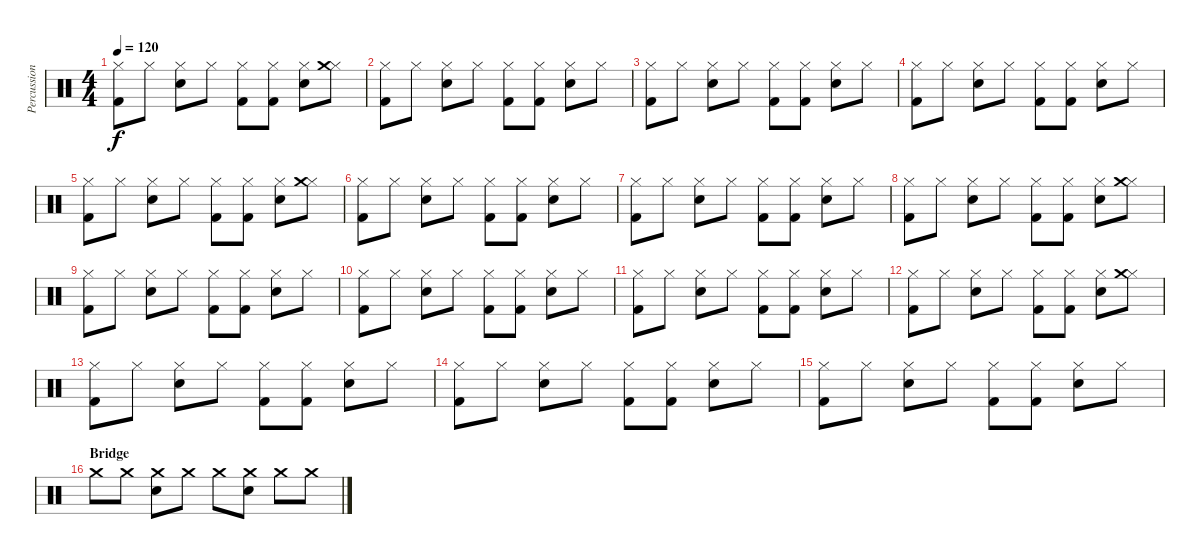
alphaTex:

\track ("Percussion" "Percussion") {instrument percussion}
\staff {score}
\articulation defaults
\ts (4 4)
\tempo 120
\clef neutral
\ks c
("Hi-Hat (closed)" "Kick (hit) 2").8{dy f} "Hi-Hat (closed)".8 ("Hi-Hat (closed)" "Snare (hit) 2").8 "Hi-Hat (closed)".8 ("Hi-Hat (closed)" "Kick (hit) 2").8 ("Hi-Hat (closed)" "Kick (hit) 2").8 ("Hi-Hat (closed)" "Snare (hit) 2").8 ("Hi-Hat (closed)" "Crash medium (hit)").8 |
("Hi-Hat (closed)" "Kick (hit) 2").8 "Hi-Hat (closed)".8 ("Hi-Hat (closed)" "Snare (hit) 2").8 "Hi-Hat (closed)".8 ("Hi-Hat (closed)" "Kick (hit) 2").8 ("Hi-Hat (closed)" "Kick (hit) 2").8 ("Hi-Hat (closed)" "Snare (hit) 2").8 "Hi-Hat (closed)".8 |
("Hi-Hat (closed)" "Kick (hit) 2").8 "Hi-Hat (closed)".8 ("Hi-Hat (closed)" "Snare (hit) 2").8 "Hi-Hat (closed)".8 ("Hi-Hat (closed)" "Kick (hit) 2").8 ("Hi-Hat (closed)" "Kick (hit) 2").8 ("Hi-Hat (closed)" "Snare (hit) 2").8 "Hi-Hat (closed)".8 |
("Hi-Hat (closed)" "Kick (hit) 2").8 "Hi-Hat (closed)".8 ("Hi-Hat (closed)" "Snare (hit) 2").8 "Hi-Hat (closed)".8 ("Hi-Hat (closed)" "Kick (hit) 2").8 ("Hi-Hat (closed)" "Kick (hit) 2").8 ("Hi-Hat (closed)" "Snare (hit) 2").8 "Hi-Hat (closed)".8 |
("Hi-Hat (closed)" "Kick (hit) 2").8 "Hi-Hat (closed)".8 ("Hi-Hat (closed)" "Snare (hit) 2").8 "Hi-Hat (closed)".8 ("Hi-Hat (closed)" "Kick (hit) 2").8 ("Hi-Hat (closed)" "Kick (hit) 2").8 ("Hi-Hat (closed)" "Snare (hit) 2").8 ("Hi-Hat (closed)" "Crash medium (hit)").8 |
("Hi-Hat (closed)" "Kick (hit) 2").8 "Hi-Hat (closed)".8 ("Hi-Hat (closed)" "Snare (hit) 2").8 "Hi-Hat (closed)".8 ("Hi-Hat (closed)" "Kick (hit) 2").8 ("Hi-Hat (closed)" "Kick (hit) 2").8 ("Hi-Hat (closed)" "Snare (hit) 2").8 "Hi-Hat (closed)".8 |
("Hi-Hat (closed)" "Kick (hit) 2").8 "Hi-Hat (closed)".8 ("Hi-Hat (closed)" "Snare (hit) 2").8 "Hi-Hat (closed)".8 ("Hi-Hat (closed)" "Kick (hit) 2").8 ("Hi-Hat (closed)" "Kick (hit) 2").8 ("Hi-Hat (closed)" "Snare (hit) 2").8 "Hi-Hat (closed)".8 |
("Hi-Hat (closed)" "Kick (hit) 2").8 "Hi-Hat (closed)".8 ("Hi-Hat (closed)" "Snare (hit) 2").8 "Hi-Hat (closed)".8 ("Hi-Hat (closed)" "Kick (hit) 2").8 ("Hi-Hat (closed)" "Kick (hit) 2").8 ("Hi-Hat (closed)" "Snare (hit) 2").8 ("Hi-Hat (closed)" "Crash medium (hit)").8 |
("Hi-Hat (closed)" "Kick (hit) 2").8 "Hi-Hat (closed)".8 ("Hi-Hat (closed)" "Snare (hit) 2").8 "Hi-Hat (closed)".8 ("Hi-Hat (closed)" "Kick (hit) 2").8 ("Hi-Hat (closed)" "Kick (hit) 2").8 ("Hi-Hat (closed)" "Snare (hit) 2").8 "Hi-Hat (closed)".8 |
("Hi-Hat (closed)" "Kick (hit) 2").8 "Hi-Hat (closed)".8 ("Hi-Hat (closed)" "Snare (hit) 2").8 "Hi-Hat (closed)".8 ("Hi-Hat (closed)" "Kick (hit) 2").8 ("Hi-Hat (closed)" "Kick (hit) 2").8 ("Hi-Hat (closed)" "Snare (hit) 2").8 "Hi-Hat (closed)".8 |
("Hi-Hat (closed)" "Kick (hit) 2").8 "Hi-Hat (closed)".8 ("Hi-Hat (closed)" "Snare (hit) 2").8 "Hi-Hat (closed)".8 ("Hi-Hat (closed)" "Kick (hit) 2").8 ("Hi-Hat (closed)" "Kick (hit) 2").8 ("Hi-Hat (closed)" "Snare (hit) 2").8 "Hi-Hat (closed)".8 |
("Hi-Hat (closed)" "Kick (hit) 2").8 "Hi-Hat (closed)".8 ("Hi-Hat (closed)" "Snare (hit) 2").8 "Hi-Hat (closed)".8 ("Hi-Hat (closed)" "Kick (hit) 2").8 ("Hi-Hat (closed)" "Kick (hit) 2").8 ("Hi-Hat (closed)" "Snare (hit) 2").8 ("Hi-Hat (closed)" "Crash medium (hit)").8 |
("Hi-Hat (closed)" "Kick (hit) 2").8 "Hi-Hat (closed)".8 ("Hi-Hat (closed)" "Snare (hit) 2").8 "Hi-Hat (closed)".8 ("Hi-Hat (closed)" "Kick (hit) 2").8 ("Hi-Hat (closed)" "Kick (hit) 2").8 ("Hi-Hat (closed)" "Snare (hit) 2").8 "Hi-Hat (closed)".8 |
("Hi-Hat (closed)" "Kick (hit) 2").8 "Hi-Hat (closed)".8 ("Hi-Hat (closed)" "Snare (hit) 2").8 "Hi-Hat (closed)".8 ("Hi-Hat (closed)" "Kick (hit) 2").8 ("Hi-Hat (closed)" "Kick (hit) 2").8 ("Hi-Hat (closed)" "Snare (hit) 2").8 "Hi-Hat (closed)".8 |
("Hi-Hat (closed)" "Kick (hit) 2").8 "Hi-Hat (closed)".8 ("Hi-Hat (closed)" "Snare (hit) 2").8 "Hi-Hat (closed)".8 ("Hi-Hat (closed)" "Kick (hit) 2").8 ("Hi-Hat (closed)" "Kick (hit) 2").8 ("Hi-Hat (closed)" "Snare (hit) 2").8 "Hi-Hat (closed)".8 |
\section ("" "Bridge")
"Crash medium (hit)".8 "Crash medium (hit)".8 ("Crash medium (hit)" "Snare (hit) 2").8 "Crash medium (hit)".8 "Crash medium (hit)".8 ("Crash medium (hit)" "Snare (hit) 2").8 "Crash medium (hit)".8 "Crash medium (hit)".8
